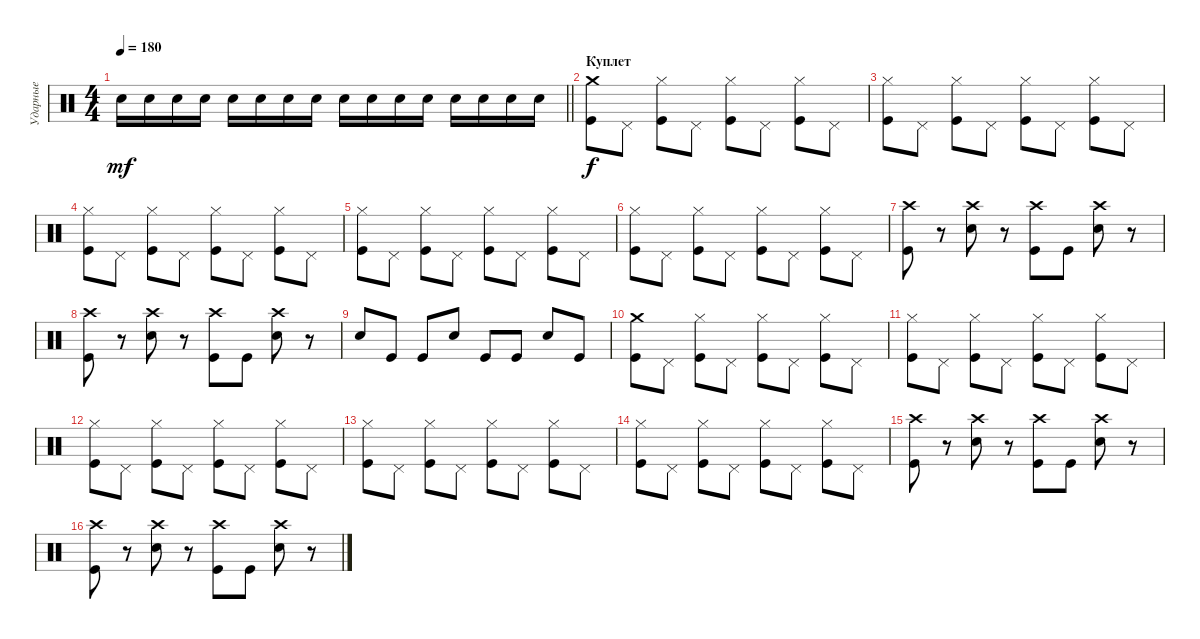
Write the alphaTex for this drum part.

\track ("Ударные" "Ударные") {instrument percussion}
\staff {score}
\articulation defaults
\ts (4 4)
\tempo 180
\clef neutral
\barLineRight lightlight
\ks c "Electric Snare (hit)".16{dy mf} "Electric Snare (hit)".16 "Electric Snare (hit)".16 "Electric Snare (hit)".16 "Electric Snare (hit)".16 "Electric Snare (hit)".16 "Electric Snare (hit)".16 "Electric Snare (hit)".16 "Electric Snare (hit)".16 "Electric Snare (hit)".16 "Electric Snare (hit)".16 "Electric Snare (hit)".16 "Electric Snare (hit)".16 "Electric Snare (hit)".16 "Electric Snare (hit)".16 "Electric Snare (hit)".16
|
\section ("" "Куплет")
("Crash medium (hit)" "Kick (hit)").8{dy f} "Pedal Hi-Hat (hit)".8 ("Hi-Hat (closed)" "Kick (hit)").8 "Pedal Hi-Hat (hit)".8 ("Hi-Hat (closed)" "Kick (hit)").8 "Pedal Hi-Hat (hit)".8 ("Hi-Hat (closed)" "Kick (hit)").8 "Pedal Hi-Hat (hit)".8 |
("Hi-Hat (closed)" "Kick (hit)").8 "Pedal Hi-Hat (hit)".8 ("Hi-Hat (closed)" "Kick (hit)").8 "Pedal Hi-Hat (hit)".8 ("Hi-Hat (closed)" "Kick (hit)").8 "Pedal Hi-Hat (hit)".8 ("Hi-Hat (closed)" "Kick (hit)").8 "Pedal Hi-Hat (hit)".8 |
("Hi-Hat (closed)" "Kick (hit)").8 "Pedal Hi-Hat (hit)".8 ("Hi-Hat (closed)" "Kick (hit)").8 "Pedal Hi-Hat (hit)".8 ("Hi-Hat (closed)" "Kick (hit)").8 "Pedal Hi-Hat (hit)".8 ("Hi-Hat (closed)" "Kick (hit)").8 "Pedal Hi-Hat (hit)".8 |
("Hi-Hat (closed)" "Kick (hit)").8 "Pedal Hi-Hat (hit)".8 ("Hi-Hat (closed)" "Kick (hit)").8 "Pedal Hi-Hat (hit)".8 ("Hi-Hat (closed)" "Kick (hit)").8 "Pedal Hi-Hat (hit)".8 ("Hi-Hat (closed)" "Kick (hit)").8 "Pedal Hi-Hat (hit)".8 |
("Hi-Hat (closed)" "Kick (hit)").8 "Pedal Hi-Hat (hit)".8 ("Hi-Hat (closed)" "Kick (hit)").8 "Pedal Hi-Hat (hit)".8 ("Hi-Hat (closed)" "Kick (hit)").8 "Pedal Hi-Hat (hit)".8 ("Hi-Hat (closed)" "Kick (hit)").8 "Pedal Hi-Hat (hit)".8 |
("Crash high (hit)" "Kick (hit)").8 r.8 ("Crash high (hit)" "Electric Snare (hit)").8 r.8 ("Crash high (hit)" "Kick (hit)").8 "Kick (hit)".8 ("Crash high (hit)" "Electric Snare (hit)").8 r.8 |
("Crash high (hit)" "Kick (hit)").8 r.8 ("Crash high (hit)" "Electric Snare (hit)").8 r.8 ("Crash high (hit)" "Kick (hit)").8 "Kick (hit)".8 ("Crash high (hit)" "Electric Snare (hit)").8 r.8 |
"Electric Snare (hit)".8 "Kick (hit)".8 "Kick (hit)".8 "Electric Snare (hit)".8 "Kick (hit)".8 "Kick (hit)".8 "Electric Snare (hit)".8 "Kick (hit)".8 |
("Crash medium (hit)" "Kick (hit)").8 "Pedal Hi-Hat (hit)".8 ("Hi-Hat (closed)" "Kick (hit)").8 "Pedal Hi-Hat (hit)".8 ("Hi-Hat (closed)" "Kick (hit)").8 "Pedal Hi-Hat (hit)".8 ("Hi-Hat (closed)" "Kick (hit)").8 "Pedal Hi-Hat (hit)".8 |
("Hi-Hat (closed)" "Kick (hit)").8 "Pedal Hi-Hat (hit)".8 ("Hi-Hat (closed)" "Kick (hit)").8 "Pedal Hi-Hat (hit)".8 ("Hi-Hat (closed)" "Kick (hit)").8 "Pedal Hi-Hat (hit)".8 ("Hi-Hat (closed)" "Kick (hit)").8 "Pedal Hi-Hat (hit)".8 |
("Hi-Hat (closed)" "Kick (hit)").8 "Pedal Hi-Hat (hit)".8 ("Hi-Hat (closed)" "Kick (hit)").8 "Pedal Hi-Hat (hit)".8 ("Hi-Hat (closed)" "Kick (hit)").8 "Pedal Hi-Hat (hit)".8 ("Hi-Hat (closed)" "Kick (hit)").8 "Pedal Hi-Hat (hit)".8 |
("Hi-Hat (closed)" "Kick (hit)").8 "Pedal Hi-Hat (hit)".8 ("Hi-Hat (closed)" "Kick (hit)").8 "Pedal Hi-Hat (hit)".8 ("Hi-Hat (closed)" "Kick (hit)").8 "Pedal Hi-Hat (hit)".8 ("Hi-Hat (closed)" "Kick (hit)").8 "Pedal Hi-Hat (hit)".8 |
("Hi-Hat (closed)" "Kick (hit)").8 "Pedal Hi-Hat (hit)".8 ("Hi-Hat (closed)" "Kick (hit)").8 "Pedal Hi-Hat (hit)".8 ("Hi-Hat (closed)" "Kick (hit)").8 "Pedal Hi-Hat (hit)".8 ("Hi-Hat (closed)" "Kick (hit)").8 "Pedal Hi-Hat (hit)".8 |
("Crash high (hit)" "Kick (hit)").8 r.8 ("Crash high (hit)" "Electric Snare (hit)").8 r.8 ("Crash high (hit)" "Kick (hit)").8 "Kick (hit)".8 ("Crash high (hit)" "Electric Snare (hit)").8 r.8 |
("Crash high (hit)" "Kick (hit)").8 r.8 ("Crash high (hit)" "Electric Snare (hit)").8 r.8 ("Crash high (hit)" "Kick (hit)").8 "Kick (hit)".8 ("Crash high (hit)" "Electric Snare (hit)").8 r.8
